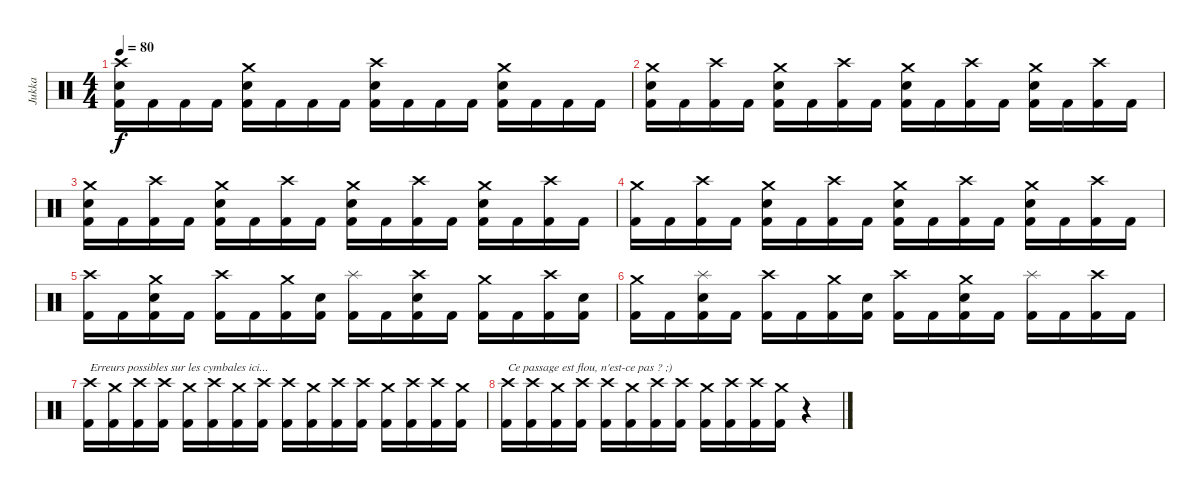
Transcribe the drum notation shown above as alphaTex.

\track ("Jukka" "Jukka") {instrument percussion}
\staff {score}
\articulation defaults
\ts (4 4)
\tempo 80
\clef neutral
\ks c
("Crash high (hit)" "Electric Snare (hit)" "Kick (hit) 2").16{dy f} "Kick (hit) 2".16 "Kick (hit) 2".16 "Kick (hit) 2".16 ("Crash medium (hit)" "Electric Snare (hit)" "Kick (hit) 2").16 "Kick (hit) 2".16 "Kick (hit) 2".16 "Kick (hit) 2".16 ("Crash high (hit)" "Electric Snare (hit)" "Kick (hit) 2").16 "Kick (hit) 2".16 "Kick (hit) 2".16 "Kick (hit) 2".16 ("Crash medium (hit)" "Electric Snare (hit)" "Kick (hit) 2").16 "Kick (hit) 2".16 "Kick (hit) 2".16 "Kick (hit) 2".16 |
("Crash medium (hit)" "Electric Snare (hit)" "Kick (hit) 2").16 "Kick (hit) 2".16 ("Crash high (hit)" "Kick (hit) 2").16 "Kick (hit) 2".16 ("Crash medium (hit)" "Electric Snare (hit)" "Kick (hit) 2").16 "Kick (hit) 2".16 ("Crash high (hit)" "Kick (hit) 2").16 "Kick (hit) 2".16 ("Crash medium (hit)" "Electric Snare (hit)" "Kick (hit) 2").16 "Kick (hit) 2".16 ("Crash high (hit)" "Kick (hit) 2").16 "Kick (hit) 2".16 ("Crash medium (hit)" "Electric Snare (hit)" "Kick (hit) 2").16 "Kick (hit) 2".16 ("Crash high (hit)" "Kick (hit) 2").16 "Kick (hit) 2".16 |
("Crash medium (hit)" "Electric Snare (hit)" "Kick (hit) 2").16 "Kick (hit) 2".16 ("Crash high (hit)" "Kick (hit) 2").16 "Kick (hit) 2".16 ("Crash medium (hit)" "Electric Snare (hit)" "Kick (hit) 2").16 "Kick (hit) 2".16 ("Crash high (hit)" "Kick (hit) 2").16 "Kick (hit) 2".16 ("Crash medium (hit)" "Electric Snare (hit)" "Kick (hit) 2").16 "Kick (hit) 2".16 ("Crash high (hit)" "Kick (hit) 2").16 "Kick (hit) 2".16 ("Crash medium (hit)" "Electric Snare (hit)" "Kick (hit) 2").16 "Kick (hit) 2".16 ("Crash high (hit)" "Kick (hit) 2").16 "Kick (hit) 2".16 |
("Crash medium (hit)" "Kick (hit) 2").16 "Kick (hit) 2".16 ("Crash high (hit)" "Kick (hit) 2").16 "Kick (hit) 2".16 ("Crash medium (hit)" "Electric Snare (hit)" "Kick (hit) 2").16 "Kick (hit) 2".16 ("Crash high (hit)" "Kick (hit) 2").16 "Kick (hit) 2".16 ("Crash medium (hit)" "Electric Snare (hit)" "Kick (hit) 2").16 "Kick (hit) 2".16 ("Crash high (hit)" "Kick (hit) 2").16 "Kick (hit) 2".16 ("Crash medium (hit)" "Electric Snare (hit)" "Kick (hit) 2").16 "Kick (hit) 2".16 ("Crash high (hit)" "Kick (hit) 2").16 "Kick (hit) 2".16 |
("Crash high (hit)" "Kick (hit) 2").16 "Kick (hit) 2".16 ("Crash medium (hit)" "Electric Snare (hit)" "Kick (hit) 2").16 "Kick (hit) 2".16 ("Crash high (hit)" "Kick (hit) 2").16 "Kick (hit) 2".16 ("Crash medium (hit)" "Kick (hit) 2").16 ("Electric Snare (hit)" "Kick (hit) 2").16 ("Splash (hit)" "Kick (hit) 2").16 "Kick (hit) 2".16 ("Crash high (hit)" "Electric Snare (hit)" "Kick (hit) 2").16 "Kick (hit) 2".16 ("Crash medium (hit)" "Kick (hit) 2").16 "Kick (hit) 2".16 ("Crash high (hit)" "Kick (hit) 2").16 ("Electric Snare (hit)" "Kick (hit) 2").16 |
("Crash medium (hit)" "Kick (hit) 2").16 "Kick (hit) 2".16 ("Splash (hit)" "Electric Snare (hit)" "Kick (hit) 2").16 "Kick (hit) 2".16 ("Crash high (hit)" "Kick (hit) 2").16 "Kick (hit) 2".16 ("Crash medium (hit)" "Kick (hit) 2").16 ("Electric Snare (hit)" "Kick (hit) 2").16 ("Crash high (hit)" "Kick (hit) 2").16 "Kick (hit) 2".16 ("Crash medium (hit)" "Electric Snare (hit)" "Kick (hit) 2").16 "Kick (hit) 2".16 ("Splash (hit)" "Kick (hit) 2").16 "Kick (hit) 2".16 ("Crash high (hit)" "Kick (hit) 2").16 "Kick (hit) 2".16 |
("Crash high (hit)" "Kick (hit) 2").16{txt "Erreurs possibles sur les cymbales ici..."} ("Crash medium (hit)" "Kick (hit) 2").16 ("Crash high (hit)" "Kick (hit) 2").16 ("Crash high (hit)" "Kick (hit) 2").16 ("Crash medium (hit)" "Kick (hit) 2").16 ("Crash high (hit)" "Kick (hit) 2").16 ("Crash medium (hit)" "Kick (hit) 2").16 ("Crash high (hit)" "Kick (hit) 2").16 ("Crash high (hit)" "Kick (hit) 2").16 ("Crash medium (hit)" "Kick (hit) 2").16 ("Crash high (hit)" "Kick (hit) 2").16 ("Crash high (hit)" "Kick (hit) 2").16 ("Crash medium (hit)" "Kick (hit) 2").16 ("Crash high (hit)" "Kick (hit) 2").16 ("Crash high (hit)" "Kick (hit) 2").16 ("Crash medium (hit)" "Kick (hit) 2").16 |
("Crash high (hit)" "Kick (hit) 2").16{txt "Ce passage est flou, n'est-ce pas ? ;)"} ("Crash high (hit)" "Kick (hit) 2").16 ("Crash medium (hit)" "Kick (hit) 2").16 ("Crash high (hit)" "Kick (hit) 2").16 ("Crash high (hit)" "Kick (hit) 2").16 ("Crash medium (hit)" "Kick (hit) 2").16 ("Crash high (hit)" "Kick (hit) 2").16 ("Crash high (hit)" "Kick (hit) 2").16 ("Crash medium (hit)" "Kick (hit) 2").16 ("Crash high (hit)" "Kick (hit) 2").16 ("Crash high (hit)" "Kick (hit) 2").16 ("Crash medium (hit)" "Kick (hit) 2").16 r.4
